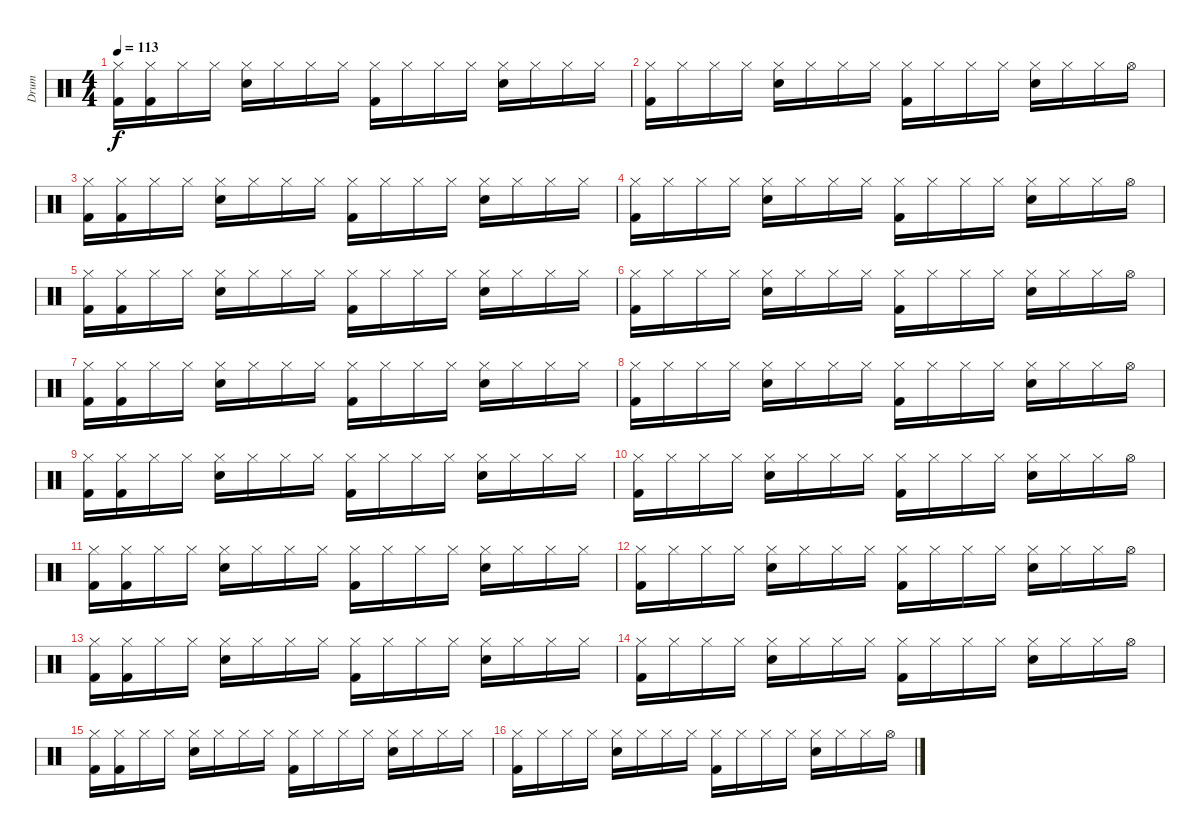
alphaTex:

\track ("Drum" "Drum") {instrument percussion}
\staff {score}
\articulation defaults
\ts (4 4)
\tempo 113
\clef neutral
\ks c
("Hi-Hat (closed)" "Kick (hit) 2").16{dy f} ("Hi-Hat (closed)" "Kick (hit) 2").16 "Hi-Hat (closed)".16 "Hi-Hat (closed)".16 ("Hi-Hat (closed)" "Snare (hit) 2").16 "Hi-Hat (closed)".16 "Hi-Hat (closed)".16 "Hi-Hat (closed)".16 ("Hi-Hat (closed)" "Kick (hit) 2").16 "Hi-Hat (closed)".16 "Hi-Hat (closed)".16 "Hi-Hat (closed)".16 ("Hi-Hat (closed)" "Snare (hit) 2").16 "Hi-Hat (closed)".16 "Hi-Hat (closed)".16 "Hi-Hat (closed)".16 |
("Hi-Hat (closed)" "Kick (hit) 2").16 "Hi-Hat (closed)".16 "Hi-Hat (closed)".16 "Hi-Hat (closed)".16 ("Hi-Hat (closed)" "Snare (hit) 2").16 "Hi-Hat (closed)".16 "Hi-Hat (closed)".16 "Hi-Hat (closed)".16 ("Hi-Hat (closed)" "Kick (hit) 2").16 "Hi-Hat (closed)".16 "Hi-Hat (closed)".16 "Hi-Hat (closed)".16 ("Hi-Hat (closed)" "Snare (hit) 2").16 "Hi-Hat (closed)".16 "Hi-Hat (closed)".16 "Hi-Hat (open)".16 |
("Hi-Hat (closed)" "Kick (hit) 2").16 ("Hi-Hat (closed)" "Kick (hit) 2").16 "Hi-Hat (closed)".16 "Hi-Hat (closed)".16 ("Hi-Hat (closed)" "Snare (hit) 2").16 "Hi-Hat (closed)".16 "Hi-Hat (closed)".16 "Hi-Hat (closed)".16 ("Hi-Hat (closed)" "Kick (hit) 2").16 "Hi-Hat (closed)".16 "Hi-Hat (closed)".16 "Hi-Hat (closed)".16 ("Hi-Hat (closed)" "Snare (hit) 2").16 "Hi-Hat (closed)".16 "Hi-Hat (closed)".16 "Hi-Hat (closed)".16 |
("Hi-Hat (closed)" "Kick (hit) 2").16 "Hi-Hat (closed)".16 "Hi-Hat (closed)".16 "Hi-Hat (closed)".16 ("Hi-Hat (closed)" "Snare (hit) 2").16 "Hi-Hat (closed)".16 "Hi-Hat (closed)".16 "Hi-Hat (closed)".16 ("Hi-Hat (closed)" "Kick (hit) 2").16 "Hi-Hat (closed)".16 "Hi-Hat (closed)".16 "Hi-Hat (closed)".16 ("Hi-Hat (closed)" "Snare (hit) 2").16 "Hi-Hat (closed)".16 "Hi-Hat (closed)".16 "Hi-Hat (open)".16 |
("Hi-Hat (closed)" "Kick (hit) 2").16 ("Hi-Hat (closed)" "Kick (hit) 2").16 "Hi-Hat (closed)".16 "Hi-Hat (closed)".16 ("Hi-Hat (closed)" "Snare (hit) 2").16 "Hi-Hat (closed)".16 "Hi-Hat (closed)".16 "Hi-Hat (closed)".16 ("Hi-Hat (closed)" "Kick (hit) 2").16 "Hi-Hat (closed)".16 "Hi-Hat (closed)".16 "Hi-Hat (closed)".16 ("Hi-Hat (closed)" "Snare (hit) 2").16 "Hi-Hat (closed)".16 "Hi-Hat (closed)".16 "Hi-Hat (closed)".16 |
("Hi-Hat (closed)" "Kick (hit) 2").16 "Hi-Hat (closed)".16 "Hi-Hat (closed)".16 "Hi-Hat (closed)".16 ("Hi-Hat (closed)" "Snare (hit) 2").16 "Hi-Hat (closed)".16 "Hi-Hat (closed)".16 "Hi-Hat (closed)".16 ("Hi-Hat (closed)" "Kick (hit) 2").16 "Hi-Hat (closed)".16 "Hi-Hat (closed)".16 "Hi-Hat (closed)".16 ("Hi-Hat (closed)" "Snare (hit) 2").16 "Hi-Hat (closed)".16 "Hi-Hat (closed)".16 "Hi-Hat (open)".16 |
("Hi-Hat (closed)" "Kick (hit) 2").16 ("Hi-Hat (closed)" "Kick (hit) 2").16 "Hi-Hat (closed)".16 "Hi-Hat (closed)".16 ("Hi-Hat (closed)" "Snare (hit) 2").16 "Hi-Hat (closed)".16 "Hi-Hat (closed)".16 "Hi-Hat (closed)".16 ("Hi-Hat (closed)" "Kick (hit) 2").16 "Hi-Hat (closed)".16 "Hi-Hat (closed)".16 "Hi-Hat (closed)".16 ("Hi-Hat (closed)" "Snare (hit) 2").16 "Hi-Hat (closed)".16 "Hi-Hat (closed)".16 "Hi-Hat (closed)".16 |
("Hi-Hat (closed)" "Kick (hit) 2").16 "Hi-Hat (closed)".16 "Hi-Hat (closed)".16 "Hi-Hat (closed)".16 ("Hi-Hat (closed)" "Snare (hit) 2").16 "Hi-Hat (closed)".16 "Hi-Hat (closed)".16 "Hi-Hat (closed)".16 ("Hi-Hat (closed)" "Kick (hit) 2").16 "Hi-Hat (closed)".16 "Hi-Hat (closed)".16 "Hi-Hat (closed)".16 ("Hi-Hat (closed)" "Snare (hit) 2").16 "Hi-Hat (closed)".16 "Hi-Hat (closed)".16 "Hi-Hat (open)".16 |
("Hi-Hat (closed)" "Kick (hit) 2").16 ("Hi-Hat (closed)" "Kick (hit) 2").16 "Hi-Hat (closed)".16 "Hi-Hat (closed)".16 ("Hi-Hat (closed)" "Snare (hit) 2").16 "Hi-Hat (closed)".16 "Hi-Hat (closed)".16 "Hi-Hat (closed)".16 ("Hi-Hat (closed)" "Kick (hit) 2").16 "Hi-Hat (closed)".16 "Hi-Hat (closed)".16 "Hi-Hat (closed)".16 ("Hi-Hat (closed)" "Snare (hit) 2").16 "Hi-Hat (closed)".16 "Hi-Hat (closed)".16 "Hi-Hat (closed)".16 |
("Hi-Hat (closed)" "Kick (hit) 2").16 "Hi-Hat (closed)".16 "Hi-Hat (closed)".16 "Hi-Hat (closed)".16 ("Hi-Hat (closed)" "Snare (hit) 2").16 "Hi-Hat (closed)".16 "Hi-Hat (closed)".16 "Hi-Hat (closed)".16 ("Hi-Hat (closed)" "Kick (hit) 2").16 "Hi-Hat (closed)".16 "Hi-Hat (closed)".16 "Hi-Hat (closed)".16 ("Hi-Hat (closed)" "Snare (hit) 2").16 "Hi-Hat (closed)".16 "Hi-Hat (closed)".16 "Hi-Hat (open)".16 |
("Hi-Hat (closed)" "Kick (hit) 2").16 ("Hi-Hat (closed)" "Kick (hit) 2").16 "Hi-Hat (closed)".16 "Hi-Hat (closed)".16 ("Hi-Hat (closed)" "Snare (hit) 2").16 "Hi-Hat (closed)".16 "Hi-Hat (closed)".16 "Hi-Hat (closed)".16 ("Hi-Hat (closed)" "Kick (hit) 2").16 "Hi-Hat (closed)".16 "Hi-Hat (closed)".16 "Hi-Hat (closed)".16 ("Hi-Hat (closed)" "Snare (hit) 2").16 "Hi-Hat (closed)".16 "Hi-Hat (closed)".16 "Hi-Hat (closed)".16 |
("Hi-Hat (closed)" "Kick (hit) 2").16 "Hi-Hat (closed)".16 "Hi-Hat (closed)".16 "Hi-Hat (closed)".16 ("Hi-Hat (closed)" "Snare (hit) 2").16 "Hi-Hat (closed)".16 "Hi-Hat (closed)".16 "Hi-Hat (closed)".16 ("Hi-Hat (closed)" "Kick (hit) 2").16 "Hi-Hat (closed)".16 "Hi-Hat (closed)".16 "Hi-Hat (closed)".16 ("Hi-Hat (closed)" "Snare (hit) 2").16 "Hi-Hat (closed)".16 "Hi-Hat (closed)".16 "Hi-Hat (open)".16 |
("Hi-Hat (closed)" "Kick (hit) 2").16 ("Hi-Hat (closed)" "Kick (hit) 2").16 "Hi-Hat (closed)".16 "Hi-Hat (closed)".16 ("Hi-Hat (closed)" "Snare (hit) 2").16 "Hi-Hat (closed)".16 "Hi-Hat (closed)".16 "Hi-Hat (closed)".16 ("Hi-Hat (closed)" "Kick (hit) 2").16 "Hi-Hat (closed)".16 "Hi-Hat (closed)".16 "Hi-Hat (closed)".16 ("Hi-Hat (closed)" "Snare (hit) 2").16 "Hi-Hat (closed)".16 "Hi-Hat (closed)".16 "Hi-Hat (closed)".16 |
("Hi-Hat (closed)" "Kick (hit) 2").16 "Hi-Hat (closed)".16 "Hi-Hat (closed)".16 "Hi-Hat (closed)".16 ("Hi-Hat (closed)" "Snare (hit) 2").16 "Hi-Hat (closed)".16 "Hi-Hat (closed)".16 "Hi-Hat (closed)".16 ("Hi-Hat (closed)" "Kick (hit) 2").16 "Hi-Hat (closed)".16 "Hi-Hat (closed)".16 "Hi-Hat (closed)".16 ("Hi-Hat (closed)" "Snare (hit) 2").16 "Hi-Hat (closed)".16 "Hi-Hat (closed)".16 "Hi-Hat (open)".16 |
("Hi-Hat (closed)" "Kick (hit) 2").16 ("Hi-Hat (closed)" "Kick (hit) 2").16 "Hi-Hat (closed)".16 "Hi-Hat (closed)".16 ("Hi-Hat (closed)" "Snare (hit) 2").16 "Hi-Hat (closed)".16 "Hi-Hat (closed)".16 "Hi-Hat (closed)".16 ("Hi-Hat (closed)" "Kick (hit) 2").16 "Hi-Hat (closed)".16 "Hi-Hat (closed)".16 "Hi-Hat (closed)".16 ("Hi-Hat (closed)" "Snare (hit) 2").16 "Hi-Hat (closed)".16 "Hi-Hat (closed)".16 "Hi-Hat (closed)".16 |
("Hi-Hat (closed)" "Kick (hit) 2").16 "Hi-Hat (closed)".16 "Hi-Hat (closed)".16 "Hi-Hat (closed)".16 ("Hi-Hat (closed)" "Snare (hit) 2").16 "Hi-Hat (closed)".16 "Hi-Hat (closed)".16 "Hi-Hat (closed)".16 ("Hi-Hat (closed)" "Kick (hit) 2").16 "Hi-Hat (closed)".16 "Hi-Hat (closed)".16 "Hi-Hat (closed)".16 ("Hi-Hat (closed)" "Snare (hit) 2").16 "Hi-Hat (closed)".16 "Hi-Hat (closed)".16 "Hi-Hat (open)".16
